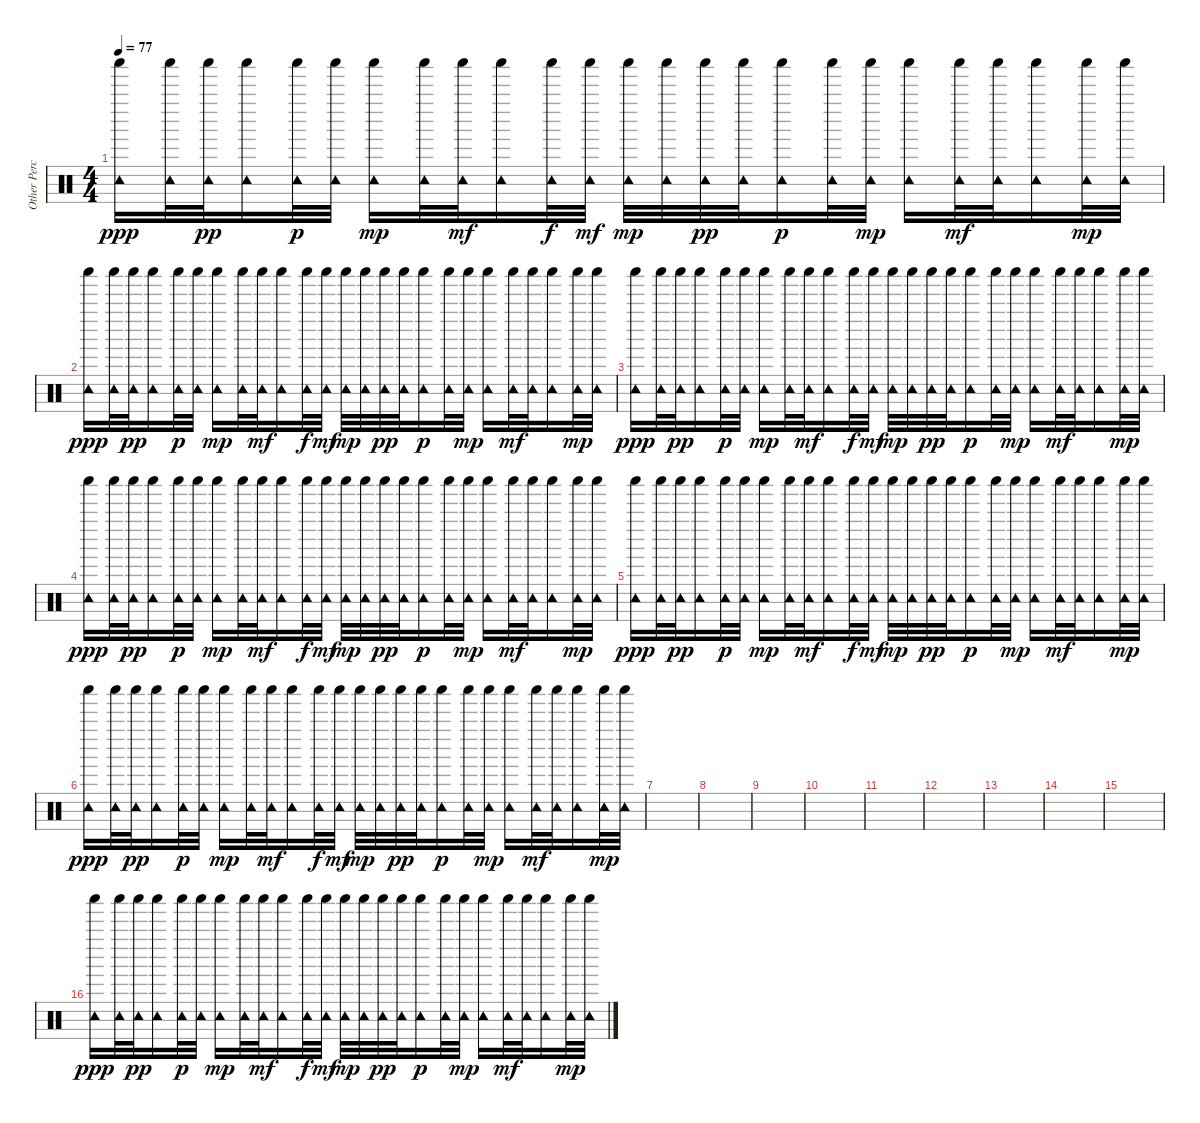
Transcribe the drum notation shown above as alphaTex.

\track ("Other Percussion" "Other Perc") {instrument percussion}
\staff {score}
\articulation defaults
\ts (4 4)
\tempo 77
\clef neutral
\ks c
("Shaker (hit)" "Tambourine (hit)").16{dy ppp} ("Shaker (hit)" "Tambourine (hit)").32 ("Shaker (hit)" "Tambourine (hit)").32{dy pp} ("Shaker (hit)" "Tambourine (hit)").16 ("Shaker (hit)" "Tambourine (hit)").32{dy p} ("Shaker (hit)" "Tambourine (hit)").32 ("Shaker (hit)" "Tambourine (hit)").16{dy mp} ("Shaker (hit)" "Tambourine (hit)").32 ("Shaker (hit)" "Tambourine (hit)").32{dy mf} ("Shaker (hit)" "Tambourine (hit)").16 ("Shaker (hit)" "Tambourine (hit)").32{dy f} ("Shaker (hit)" "Tambourine (hit)").32{dy mf} ("Shaker (hit)" "Tambourine (hit)").32{dy mp} ("Shaker (hit)" "Tambourine (hit)").32 ("Shaker (hit)" "Tambourine (hit)").32{dy pp} ("Shaker (hit)" "Tambourine (hit)").32 ("Shaker (hit)" "Tambourine (hit)").16{dy p} ("Shaker (hit)" "Tambourine (hit)").32 ("Shaker (hit)" "Tambourine (hit)").32{dy mp} ("Shaker (hit)" "Tambourine (hit)").16 ("Shaker (hit)" "Tambourine (hit)").32{dy mf} ("Shaker (hit)" "Tambourine (hit)").32 ("Shaker (hit)" "Tambourine (hit)").16 ("Shaker (hit)" "Tambourine (hit)").32{dy mp} ("Shaker (hit)" "Tambourine (hit)").32 |
("Shaker (hit)" "Tambourine (hit)").16{dy ppp} ("Shaker (hit)" "Tambourine (hit)").32 ("Shaker (hit)" "Tambourine (hit)").32{dy pp} ("Shaker (hit)" "Tambourine (hit)").16 ("Shaker (hit)" "Tambourine (hit)").32{dy p} ("Shaker (hit)" "Tambourine (hit)").32 ("Shaker (hit)" "Tambourine (hit)").16{dy mp} ("Shaker (hit)" "Tambourine (hit)").32 ("Shaker (hit)" "Tambourine (hit)").32{dy mf} ("Shaker (hit)" "Tambourine (hit)").16 ("Shaker (hit)" "Tambourine (hit)").32{dy f} ("Shaker (hit)" "Tambourine (hit)").32{dy mf} ("Shaker (hit)" "Tambourine (hit)").32{dy mp} ("Shaker (hit)" "Tambourine (hit)").32 ("Shaker (hit)" "Tambourine (hit)").32{dy pp} ("Shaker (hit)" "Tambourine (hit)").32 ("Shaker (hit)" "Tambourine (hit)").16{dy p} ("Shaker (hit)" "Tambourine (hit)").32 ("Shaker (hit)" "Tambourine (hit)").32{dy mp} ("Shaker (hit)" "Tambourine (hit)").16 ("Shaker (hit)" "Tambourine (hit)").32{dy mf} ("Shaker (hit)" "Tambourine (hit)").32 ("Shaker (hit)" "Tambourine (hit)").16 ("Shaker (hit)" "Tambourine (hit)").32{dy mp} ("Shaker (hit)" "Tambourine (hit)").32 |
("Shaker (hit)" "Tambourine (hit)").16{dy ppp} ("Shaker (hit)" "Tambourine (hit)").32 ("Shaker (hit)" "Tambourine (hit)").32{dy pp} ("Shaker (hit)" "Tambourine (hit)").16 ("Shaker (hit)" "Tambourine (hit)").32{dy p} ("Shaker (hit)" "Tambourine (hit)").32 ("Shaker (hit)" "Tambourine (hit)").16{dy mp} ("Shaker (hit)" "Tambourine (hit)").32 ("Shaker (hit)" "Tambourine (hit)").32{dy mf} ("Shaker (hit)" "Tambourine (hit)").16 ("Shaker (hit)" "Tambourine (hit)").32{dy f} ("Shaker (hit)" "Tambourine (hit)").32{dy mf} ("Shaker (hit)" "Tambourine (hit)").32{dy mp} ("Shaker (hit)" "Tambourine (hit)").32 ("Shaker (hit)" "Tambourine (hit)").32{dy pp} ("Shaker (hit)" "Tambourine (hit)").32 ("Shaker (hit)" "Tambourine (hit)").16{dy p} ("Shaker (hit)" "Tambourine (hit)").32 ("Shaker (hit)" "Tambourine (hit)").32{dy mp} ("Shaker (hit)" "Tambourine (hit)").16 ("Shaker (hit)" "Tambourine (hit)").32{dy mf} ("Shaker (hit)" "Tambourine (hit)").32 ("Shaker (hit)" "Tambourine (hit)").16 ("Shaker (hit)" "Tambourine (hit)").32{dy mp} ("Shaker (hit)" "Tambourine (hit)").32 |
("Shaker (hit)" "Tambourine (hit)").16{dy ppp} ("Shaker (hit)" "Tambourine (hit)").32 ("Shaker (hit)" "Tambourine (hit)").32{dy pp} ("Shaker (hit)" "Tambourine (hit)").16 ("Shaker (hit)" "Tambourine (hit)").32{dy p} ("Shaker (hit)" "Tambourine (hit)").32 ("Shaker (hit)" "Tambourine (hit)").16{dy mp} ("Shaker (hit)" "Tambourine (hit)").32 ("Shaker (hit)" "Tambourine (hit)").32{dy mf} ("Shaker (hit)" "Tambourine (hit)").16 ("Shaker (hit)" "Tambourine (hit)").32{dy f} ("Shaker (hit)" "Tambourine (hit)").32{dy mf} ("Shaker (hit)" "Tambourine (hit)").32{dy mp} ("Shaker (hit)" "Tambourine (hit)").32 ("Shaker (hit)" "Tambourine (hit)").32{dy pp} ("Shaker (hit)" "Tambourine (hit)").32 ("Shaker (hit)" "Tambourine (hit)").16{dy p} ("Shaker (hit)" "Tambourine (hit)").32 ("Shaker (hit)" "Tambourine (hit)").32{dy mp} ("Shaker (hit)" "Tambourine (hit)").16 ("Shaker (hit)" "Tambourine (hit)").32{dy mf} ("Shaker (hit)" "Tambourine (hit)").32 ("Shaker (hit)" "Tambourine (hit)").16 ("Shaker (hit)" "Tambourine (hit)").32{dy mp} ("Shaker (hit)" "Tambourine (hit)").32 |
("Shaker (hit)" "Tambourine (hit)").16{dy ppp} ("Shaker (hit)" "Tambourine (hit)").32 ("Shaker (hit)" "Tambourine (hit)").32{dy pp} ("Shaker (hit)" "Tambourine (hit)").16 ("Shaker (hit)" "Tambourine (hit)").32{dy p} ("Shaker (hit)" "Tambourine (hit)").32 ("Shaker (hit)" "Tambourine (hit)").16{dy mp} ("Shaker (hit)" "Tambourine (hit)").32 ("Shaker (hit)" "Tambourine (hit)").32{dy mf} ("Shaker (hit)" "Tambourine (hit)").16 ("Shaker (hit)" "Tambourine (hit)").32{dy f} ("Shaker (hit)" "Tambourine (hit)").32{dy mf} ("Shaker (hit)" "Tambourine (hit)").32{dy mp} ("Shaker (hit)" "Tambourine (hit)").32 ("Shaker (hit)" "Tambourine (hit)").32{dy pp} ("Shaker (hit)" "Tambourine (hit)").32 ("Shaker (hit)" "Tambourine (hit)").16{dy p} ("Shaker (hit)" "Tambourine (hit)").32 ("Shaker (hit)" "Tambourine (hit)").32{dy mp} ("Shaker (hit)" "Tambourine (hit)").16 ("Shaker (hit)" "Tambourine (hit)").32{dy mf} ("Shaker (hit)" "Tambourine (hit)").32 ("Shaker (hit)" "Tambourine (hit)").16 ("Shaker (hit)" "Tambourine (hit)").32{dy mp} ("Shaker (hit)" "Tambourine (hit)").32 |
("Shaker (hit)" "Tambourine (hit)").16{dy ppp} ("Shaker (hit)" "Tambourine (hit)").32 ("Shaker (hit)" "Tambourine (hit)").32{dy pp} ("Shaker (hit)" "Tambourine (hit)").16 ("Shaker (hit)" "Tambourine (hit)").32{dy p} ("Shaker (hit)" "Tambourine (hit)").32 ("Shaker (hit)" "Tambourine (hit)").16{dy mp} ("Shaker (hit)" "Tambourine (hit)").32 ("Shaker (hit)" "Tambourine (hit)").32{dy mf} ("Shaker (hit)" "Tambourine (hit)").16 ("Shaker (hit)" "Tambourine (hit)").32{dy f} ("Shaker (hit)" "Tambourine (hit)").32{dy mf} ("Shaker (hit)" "Tambourine (hit)").32{dy mp} ("Shaker (hit)" "Tambourine (hit)").32 ("Shaker (hit)" "Tambourine (hit)").32{dy pp} ("Shaker (hit)" "Tambourine (hit)").32 ("Shaker (hit)" "Tambourine (hit)").16{dy p} ("Shaker (hit)" "Tambourine (hit)").32 ("Shaker (hit)" "Tambourine (hit)").32{dy mp} ("Shaker (hit)" "Tambourine (hit)").16 ("Shaker (hit)" "Tambourine (hit)").32{dy mf} ("Shaker (hit)" "Tambourine (hit)").32 ("Shaker (hit)" "Tambourine (hit)").16 ("Shaker (hit)" "Tambourine (hit)").32{dy mp} ("Shaker (hit)" "Tambourine (hit)").32 |
|
|
|
|
|
|
|
|
|
("Shaker (hit)" "Tambourine (hit)").16{dy ppp} ("Shaker (hit)" "Tambourine (hit)").32 ("Shaker (hit)" "Tambourine (hit)").32{dy pp} ("Shaker (hit)" "Tambourine (hit)").16 ("Shaker (hit)" "Tambourine (hit)").32{dy p} ("Shaker (hit)" "Tambourine (hit)").32 ("Shaker (hit)" "Tambourine (hit)").16{dy mp} ("Shaker (hit)" "Tambourine (hit)").32 ("Shaker (hit)" "Tambourine (hit)").32{dy mf} ("Shaker (hit)" "Tambourine (hit)").16 ("Shaker (hit)" "Tambourine (hit)").32{dy f} ("Shaker (hit)" "Tambourine (hit)").32{dy mf} ("Shaker (hit)" "Tambourine (hit)").32{dy mp} ("Shaker (hit)" "Tambourine (hit)").32 ("Shaker (hit)" "Tambourine (hit)").32{dy pp} ("Shaker (hit)" "Tambourine (hit)").32 ("Shaker (hit)" "Tambourine (hit)").16{dy p} ("Shaker (hit)" "Tambourine (hit)").32 ("Shaker (hit)" "Tambourine (hit)").32{dy mp} ("Shaker (hit)" "Tambourine (hit)").16 ("Shaker (hit)" "Tambourine (hit)").32{dy mf} ("Shaker (hit)" "Tambourine (hit)").32 ("Shaker (hit)" "Tambourine (hit)").16 ("Shaker (hit)" "Tambourine (hit)").32{dy mp} ("Shaker (hit)" "Tambourine (hit)").32
